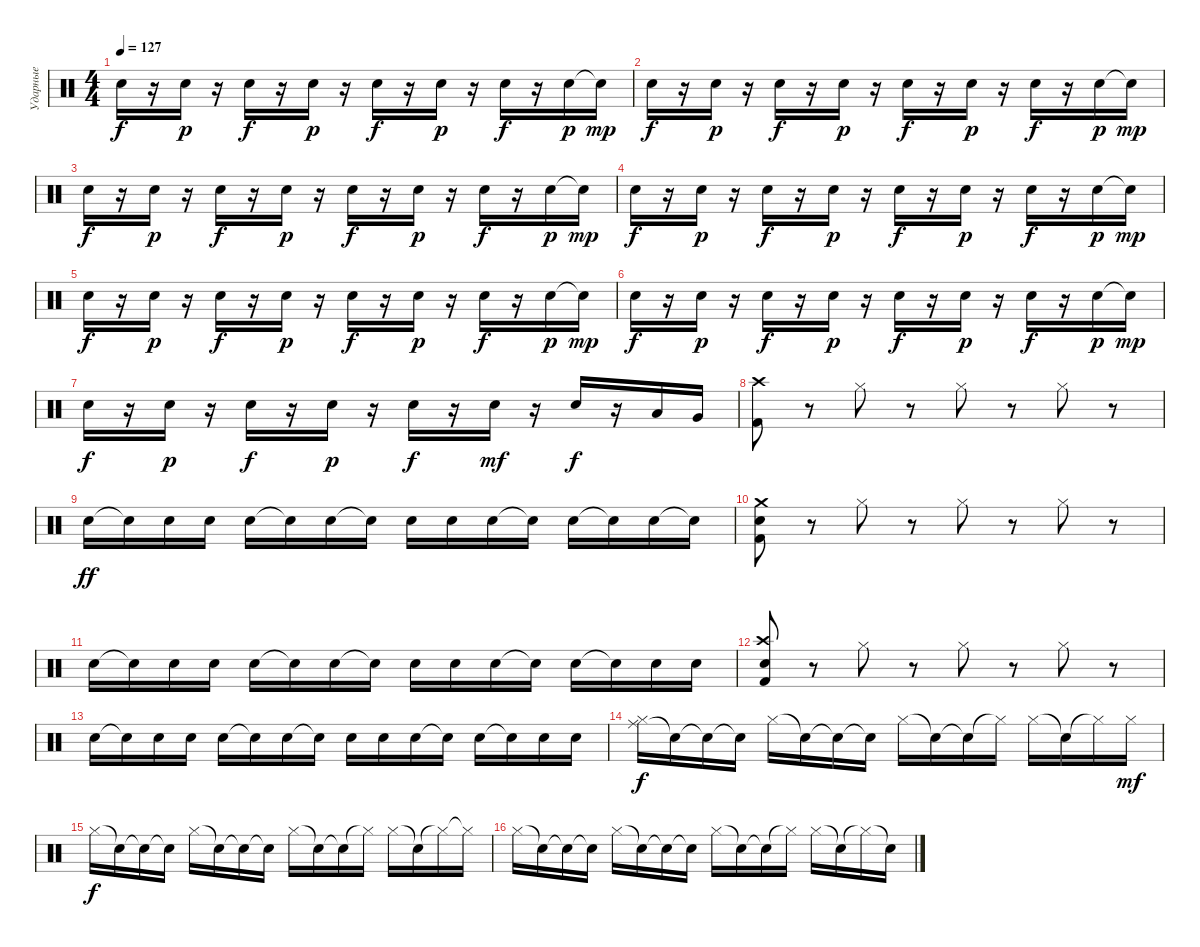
\track ("Ударные" "Ударные") {instrument percussion}
\staff {score}
\articulation defaults
\ts (4 4)
\tempo 127
\clef neutral
\ks c "Electric Snare (hit)".16{dy f}
r.16 "Electric Snare (hit)".16{dy p} r.16 "Electric Snare (hit)".16{dy f} r.16 "Electric Snare (hit)".16{dy p} r.16 "Electric Snare (hit)".16{dy f} r.16 "Electric Snare (hit)".16{dy p} r.16 "Electric Snare (hit)".16{dy f} r.16 "Electric Snare (hit)".16{dy p} "Electric Snare (hit)"{t}.16{dy mp} |
"Electric Snare (hit)".16{dy f} r.16 "Electric Snare (hit)".16{dy p} r.16 "Electric Snare (hit)".16{dy f} r.16 "Electric Snare (hit)".16{dy p} r.16 "Electric Snare (hit)".16{dy f} r.16 "Electric Snare (hit)".16{dy p} r.16 "Electric Snare (hit)".16{dy f} r.16 "Electric Snare (hit)".16{dy p} "Electric Snare (hit)"{t}.16{dy mp} |
"Electric Snare (hit)".16{dy f} r.16 "Electric Snare (hit)".16{dy p} r.16 "Electric Snare (hit)".16{dy f} r.16 "Electric Snare (hit)".16{dy p} r.16 "Electric Snare (hit)".16{dy f} r.16 "Electric Snare (hit)".16{dy p} r.16 "Electric Snare (hit)".16{dy f} r.16 "Electric Snare (hit)".16{dy p} "Electric Snare (hit)"{t}.16{dy mp} |
"Electric Snare (hit)".16{dy f} r.16 "Electric Snare (hit)".16{dy p} r.16 "Electric Snare (hit)".16{dy f} r.16 "Electric Snare (hit)".16{dy p} r.16 "Electric Snare (hit)".16{dy f} r.16 "Electric Snare (hit)".16{dy p} r.16 "Electric Snare (hit)".16{dy f} r.16 "Electric Snare (hit)".16{dy p} "Electric Snare (hit)"{t}.16{dy mp} |
"Electric Snare (hit)".16{dy f} r.16 "Electric Snare (hit)".16{dy p} r.16 "Electric Snare (hit)".16{dy f} r.16 "Electric Snare (hit)".16{dy p} r.16 "Electric Snare (hit)".16{dy f} r.16 "Electric Snare (hit)".16{dy p} r.16 "Electric Snare (hit)".16{dy f} r.16 "Electric Snare (hit)".16{dy p} "Electric Snare (hit)"{t}.16{dy mp} |
"Electric Snare (hit)".16{dy f} r.16 "Electric Snare (hit)".16{dy p} r.16 "Electric Snare (hit)".16{dy f} r.16 "Electric Snare (hit)".16{dy p} r.16 "Electric Snare (hit)".16{dy f} r.16 "Electric Snare (hit)".16{dy p} r.16 "Electric Snare (hit)".16{dy f} r.16 "Electric Snare (hit)".16{dy p} "Electric Snare (hit)"{t}.16{dy mp} |
"Electric Snare (hit)".16{dy f} r.16 "Electric Snare (hit)".16{dy p} r.16 "Electric Snare (hit)".16{dy f} r.16 "Electric Snare (hit)".16{dy p} r.16 "Electric Snare (hit)".16{dy f} r.16 "Electric Snare (hit)".16{dy mf} r.16 "Electric Snare (hit)".16{dy f} r.16 "Low Tom (hit)".16 "Very Low Tom (hit)".16 |
("Crash high (hit)" "Kick (hit) 2").8 r.8 "Hi-Hat (closed)".8 r.8 "Hi-Hat (closed)".8 r.8 "Hi-Hat (closed)".8 r.8 |
"Electric Snare (hit)".16{dy ff} "Electric Snare (hit)"{t}.16 "Electric Snare (hit)".16 "Electric Snare (hit)".16 "Electric Snare (hit)".16 "Snare (hit)"{t}.16 "Electric Snare (hit)".16 "Snare (hit)"{t}.16 "Electric Snare (hit)".16 "Electric Snare (hit)".16 "Electric Snare (hit)".16 "Electric Snare (hit)"{t}.16 "Electric Snare (hit)".16 "Electric Snare (hit)"{t}.16 "Electric Snare (hit)".16 "Electric Snare (hit)"{t}.16 |
("Electric Snare (hit)" "Crash medium (hit)" "Kick (hit) 2").8 r.8 "Hi-Hat (closed)".8 r.8 "Hi-Hat (closed)".8 r.8 "Hi-Hat (closed)".8 r.8 |
"Electric Snare (hit)".16 "Electric Snare (hit)"{t}.16 "Electric Snare (hit)".16 "Electric Snare (hit)".16 "Electric Snare (hit)".16 "Snare (hit)"{t}.16 "Electric Snare (hit)".16 "Snare (hit)"{t}.16 "Electric Snare (hit)".16 "Electric Snare (hit)".16 "Electric Snare (hit)".16 "Electric Snare (hit)"{t}.16 "Electric Snare (hit)".16 "Electric Snare (hit)"{t}.16 "Electric Snare (hit)".16 "Electric Snare (hit)".16 |
("Electric Snare (hit)" "Crash high (hit)" "Kick (hit) 2").8 r.8 "Hi-Hat (closed)".8 r.8 "Hi-Hat (closed)".8 r.8 "Hi-Hat (closed)".8 r.8 |
"Electric Snare (hit)".16 "Electric Snare (hit)"{t}.16 "Electric Snare (hit)".16 "Electric Snare (hit)".16 "Electric Snare (hit)".16 "Snare (hit)"{t}.16 "Electric Snare (hit)".16 "Snare (hit)"{t}.16 "Electric Snare (hit)".16 "Electric Snare (hit)".16 "Electric Snare (hit)".16 "Electric Snare (hit)"{t}.16 "Electric Snare (hit)".16 "Electric Snare (hit)"{t}.16 "Electric Snare (hit)".16 "Electric Snare (hit)".16 |
("Ride (middle)" "Hi-Hat (closed)").16{dy f} "Snare (hit)"{t}.16 "Snare (hit)"{t}.16 "Snare (hit)"{t}.16 "Hi-Hat (closed)".16 "Snare (hit)"{t}.16 "Snare (hit)"{t}.16 "Snare (hit)"{t}.16 "Hi-Hat (closed)".16 "Snare (hit)"{t}.16 "Snare (hit)"{t}.16 "Hi-Hat (closed)"{t}.16 "Hi-Hat (closed)".16 "Snare (hit)"{t}.16 "Hi-Hat (closed)"{t}.16 "Hi-Hat (closed)".16{dy mf} |
"Hi-Hat (closed)".16{dy f} "Snare (hit)"{t}.16 "Snare (hit)"{t}.16 "Snare (hit)"{t}.16 "Hi-Hat (closed)".16 "Snare (hit)"{t}.16 "Snare (hit)"{t}.16 "Snare (hit)"{t}.16 "Hi-Hat (closed)".16 "Snare (hit)"{t}.16 "Snare (hit)"{t}.16 "Hi-Hat (closed)"{t}.16 "Hi-Hat (closed)".16 "Snare (hit)"{t}.16 "Hi-Hat (closed)"{t}.16 "Hi-Hat (closed)"{t}.16 |
"Hi-Hat (closed)".16 "Snare (hit)"{t}.16 "Snare (hit)"{t}.16 "Snare (hit)"{t}.16 "Hi-Hat (closed)".16 "Snare (hit)"{t}.16 "Snare (hit)"{t}.16 "Snare (hit)"{t}.16 "Hi-Hat (closed)".16 "Snare (hit)"{t}.16 "Snare (hit)"{t}.16 "Hi-Hat (closed)"{t}.16 "Hi-Hat (closed)".16 "Snare (hit)"{t}.16 "Hi-Hat (closed)"{t}.16 "Snare (hit)"{t}.16
